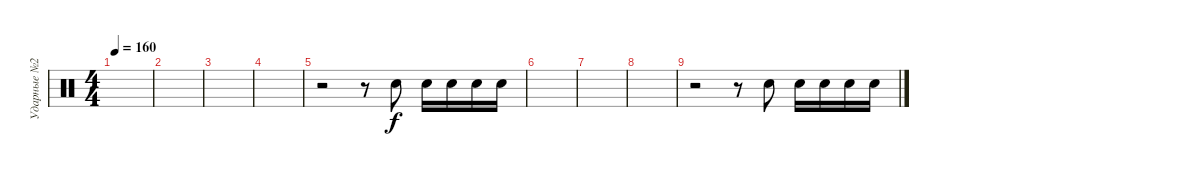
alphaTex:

\track ("Ударные №2" "Ударные №2") {instrument percussion}
\staff {score}
\articulation defaults
\ts (4 4)
\tempo 160
\clef neutral
\ks c
|
|
|
|
r.2 r.8 "Snare (hit) 2".8 "Snare (hit) 2".16 "Snare (hit) 2".16 "Snare (hit) 2".16 "Snare (hit) 2".16 |
|
|
|
r.2 r.8 "Snare (hit) 2".8 "Snare (hit) 2".16 "Snare (hit) 2".16 "Snare (hit) 2".16 "Snare (hit) 2".16
